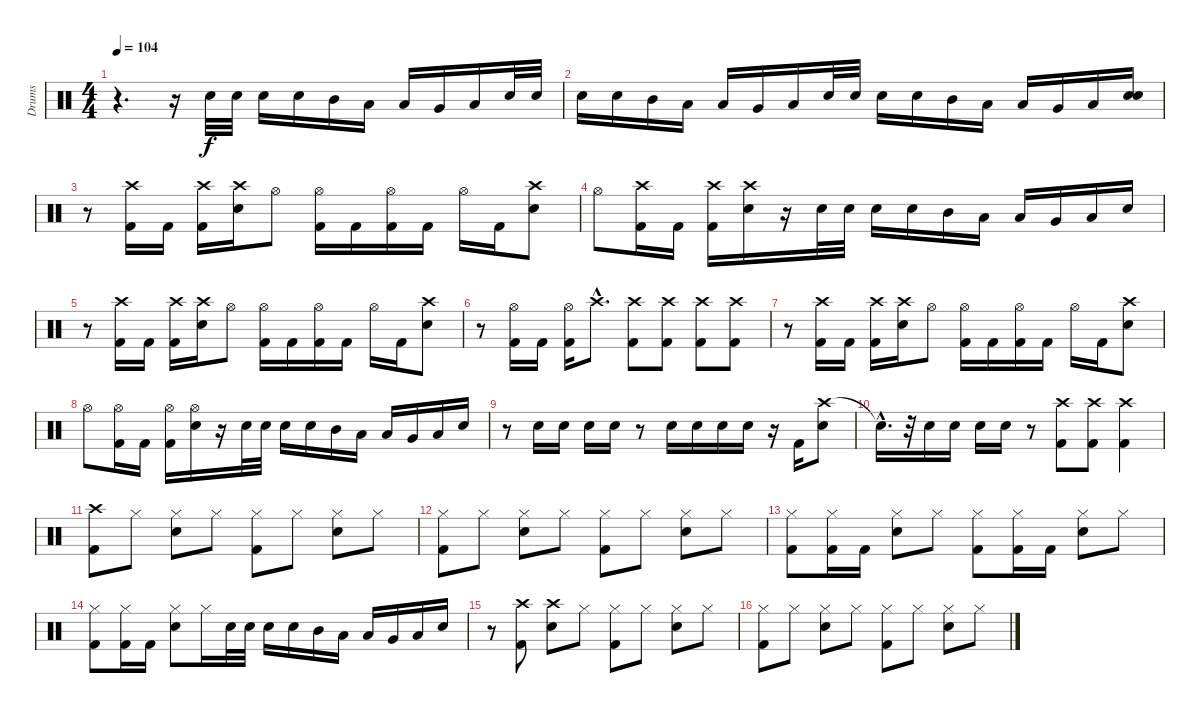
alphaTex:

\track ("Drums" "Drums") {instrument percussion}
\staff {score}
\articulation defaults
\ts (4 4)
\tempo 104
\clef neutral
\ks c
r.4{d dy f} r.16 "Snare (hit) 2".32 "Snare (hit) 2".32 "Snare (hit) 2".16 "Snare (hit) 2".16 "Mid Tom (hit)".16 "Low Tom (hit)".16 "Low Tom (hit)".16 "Very Low Tom (hit)".16 "Low Floor Tom (hit)".16 "Snare (hit) 2".32 "Snare (hit) 2".32 |
"Snare (hit) 2".16 "Snare (hit) 2".16 "Mid Tom (hit)".16 "Low Tom (hit)".16 "Low Tom (hit)".16 "Very Low Tom (hit)".16 "Low Floor Tom (hit)".16 "Snare (hit) 2".32 "Snare (hit) 2".32 "Snare (hit) 2".16 "Snare (hit) 2".16 "Mid Tom (hit)".16 "Low Tom (hit)".16 "Low Tom (hit)".16 "Very Low Tom (hit)".16 "Low Floor Tom (hit)".16 ("Snare (hit) 2" "Snare (hit) 2").16 |
r.8 ("Crash high (hit)" "Kick (hit) 2").16 "Kick (hit) 2".16 ("Kick (hit) 2" "Crash high (hit)").16 ("Snare (hit) 2" "Crash high (hit)").16 "Hi-Hat (open)".8 ("Hi-Hat (open)" "Kick (hit) 2").16 "Kick (hit) 2".16 ("Kick (hit) 2" "Hi-Hat (open)").16 "Kick (hit) 2".16 "Hi-Hat (open)".16 "Kick (hit) 2".16 ("Crash high (hit)" "Snare (hit) 2").8 |
"Hi-Hat (open)".8 ("Kick (hit) 2" "Crash high (hit)").16 "Kick (hit) 2".16 ("Kick (hit) 2" "Crash high (hit)").16 ("Snare (hit) 2" "Crash high (hit)").16 r.16 "Snare (hit) 2".32 "Snare (hit) 2".32 "Snare (hit) 2".16 "Snare (hit) 2".16 "Mid Tom (hit)".16 "Low Tom (hit)".16 "Low Tom (hit)".16 "Very Low Tom (hit)".16 "Low Floor Tom (hit)".16 "Snare (hit) 2".16 |
r.8 ("Crash high (hit)" "Kick (hit) 2").16 "Kick (hit) 2".16 ("Kick (hit) 2" "Crash high (hit)").16 ("Snare (hit) 2" "Crash high (hit)").16 "Hi-Hat (open)".8 ("Hi-Hat (open)" "Kick (hit) 2").16 "Kick (hit) 2".16 ("Hi-Hat (open)" "Kick (hit) 2").16 "Kick (hit) 2".16 "Hi-Hat (open)".16 "Kick (hit) 2".16 ("Crash high (hit)" "Snare (hit) 2").8 |
r.8 ("Kick (hit) 2" "Hi-Hat (open)").16 "Kick (hit) 2".16 ("Hi-Hat (open)" "Kick (hit) 2").16 "Crash high (hit)"{hac}.8{d} ("Kick (hit) 2" "Crash high (hit)").8 ("Crash high (hit)" "Kick (hit) 2").8 ("Kick (hit) 2" "Crash high (hit)").8 ("Crash high (hit)" "Kick (hit) 2").8 |
r.8 ("Kick (hit) 2" "Crash high (hit)").16 "Kick (hit) 2".16 ("Kick (hit) 2" "Crash high (hit)").16 ("Snare (hit) 2" "Crash high (hit)").16 "Hi-Hat (open)".8 ("Hi-Hat (open)" "Kick (hit) 2").16 "Kick (hit) 2".16 ("Hi-Hat (open)" "Kick (hit) 2").16 "Kick (hit) 2".16 "Hi-Hat (open)".16 "Kick (hit) 2".16 ("Snare (hit) 2" "Crash high (hit)").8 |
"Hi-Hat (open)".8 ("Kick (hit) 2" "Hi-Hat (open)").16 "Kick (hit) 2".16 ("Kick (hit) 2" "Hi-Hat (open)").16 ("Snare (hit) 2" "Hi-Hat (open)").16 r.16 "Snare (hit) 2".32 "Snare (hit) 2".32 "Snare (hit) 2".16 "Snare (hit) 2".16 "Mid Tom (hit)".16 "Low Tom (hit)".16 "Low Tom (hit)".16 "Very Low Tom (hit)".16 "Low Floor Tom (hit)".16 "Snare (hit) 2".16 |
r.8 "Snare (hit) 2".16 "Snare (hit) 2".16 "Snare (hit) 2".16 "Snare (hit) 2".16 r.8 "Snare (hit) 2".16 "Snare (hit) 2".16 "Snare (hit) 2".16 "Snare (hit) 2".16 r.16 "Kick (hit) 2".16 ("Crash high (hit)" "Snare (hit) 2").8 |
"Snare (hit)"{hac t}.16{d} r.32 "Snare (hit) 2".16 "Snare (hit) 2".16 "Snare (hit) 2".16 "Snare (hit) 2".16 r.8 ("Crash high (hit)" "Kick (hit) 2").8 ("Kick (hit) 2" "Crash high (hit)").8 ("Kick (hit) 2" "Crash high (hit)").4 |
("Crash high (hit)" "Kick (hit) 2").8 "Hi-Hat (closed)".8 ("Hi-Hat (closed)" "Snare (hit) 2").8 "Hi-Hat (closed)".8 ("Kick (hit) 2" "Hi-Hat (closed)").8 "Hi-Hat (closed)".8 ("Snare (hit) 2" "Hi-Hat (closed)").8 "Hi-Hat (closed)".8 |
("Kick (hit) 2" "Hi-Hat (closed)").8 "Hi-Hat (closed)".8 ("Snare (hit) 2" "Hi-Hat (closed)").8 "Hi-Hat (closed)".8 ("Hi-Hat (closed)" "Kick (hit) 2").8 "Hi-Hat (closed)".8 ("Snare (hit) 2" "Hi-Hat (closed)").8 "Hi-Hat (closed)".8 |
("Hi-Hat (closed)" "Kick (hit) 2").8 ("Kick (hit) 2" "Hi-Hat (closed)").16 "Kick (hit) 2".16 ("Snare (hit) 2" "Hi-Hat (closed)").8 "Hi-Hat (closed)".8 ("Kick (hit) 2" "Hi-Hat (closed)").8 ("Kick (hit) 2" "Hi-Hat (closed)").16 "Kick (hit) 2".16 ("Hi-Hat (closed)" "Snare (hit) 2").8 "Hi-Hat (closed)".8 |
("Hi-Hat (closed)" "Kick (hit) 2").8 ("Kick (hit) 2" "Hi-Hat (closed)").16 "Kick (hit) 2".16 ("Hi-Hat (closed)" "Snare (hit) 2").8 "Hi-Hat (closed)".16 "Snare (hit) 2".32 "Snare (hit) 2".32 "Snare (hit) 2".16 "Snare (hit) 2".16 "Mid Tom (hit)".16 "Low Tom (hit)".16 "Low Tom (hit)".16 "Very Low Tom (hit)".16 "Low Floor Tom (hit)".16 "Snare (hit) 2".16 |
r.8 ("Crash high (hit)" "Kick (hit) 2").8 ("Snare (hit) 2" "Crash high (hit)").8 "Hi-Hat (closed)".8 ("Kick (hit) 2" "Hi-Hat (closed)").8 "Hi-Hat (closed)".8 ("Snare (hit) 2" "Hi-Hat (closed)").8 "Hi-Hat (closed)".8 |
("Hi-Hat (closed)" "Kick (hit) 2").8 "Hi-Hat (closed)".8 ("Hi-Hat (closed)" "Snare (hit) 2").8 "Hi-Hat (closed)".8 ("Hi-Hat (closed)" "Kick (hit) 2").8 "Hi-Hat (closed)".8 ("Snare (hit) 2" "Hi-Hat (closed)").8 "Hi-Hat (closed)".8
